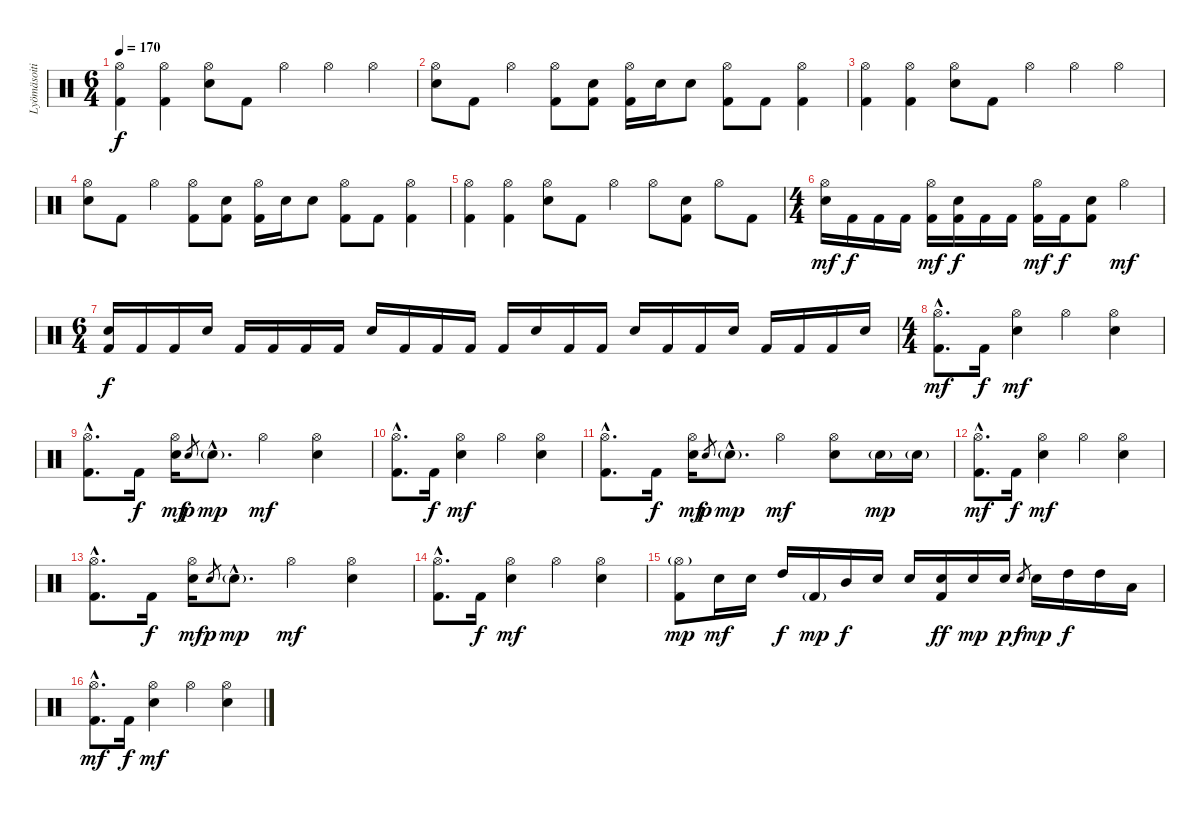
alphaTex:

\track ("Lyömäsoitin" "Lyömäsoiti") {instrument percussion}
\staff {score}
\articulation defaults
\ts (6 4)
\tempo 170
\clef neutral
\ks c
("Hi-Hat (open)" "Kick (hit) 2").4{dy f} ("Hi-Hat (open)" "Kick (hit) 2").4 ("Hi-Hat (open)" "Electric Snare (hit)").8 "Kick (hit) 2".8 "Hi-Hat (open)".4 "Hi-Hat (open)".4 "Hi-Hat (open)".4 |
("Hi-Hat (open)" "Electric Snare (hit)").8 "Kick (hit) 2".8 "Hi-Hat (open)".4 ("Kick (hit) 2" "Hi-Hat (open)").8 ("Electric Snare (hit)" "Kick (hit) 2").8 ("Kick (hit) 2" "Hi-Hat (open)").16 "Electric Snare (hit)".16 "Electric Snare (hit)".8 ("Hi-Hat (open)" "Kick (hit) 2").8 "Kick (hit) 2".8 ("Hi-Hat (open)" "Kick (hit) 2").4 |
("Hi-Hat (open)" "Kick (hit) 2").4 ("Hi-Hat (open)" "Kick (hit) 2").4 ("Hi-Hat (open)" "Electric Snare (hit)").8 "Kick (hit) 2".8 "Hi-Hat (open)".4 "Hi-Hat (open)".4 "Hi-Hat (open)".4 |
("Hi-Hat (open)" "Electric Snare (hit)").8 "Kick (hit) 2".8 "Hi-Hat (open)".4 ("Kick (hit) 2" "Hi-Hat (open)").8 ("Electric Snare (hit)" "Kick (hit) 2").8 ("Kick (hit) 2" "Hi-Hat (open)").16 "Electric Snare (hit)".16 "Electric Snare (hit)".8 ("Hi-Hat (open)" "Kick (hit) 2").8 "Kick (hit) 2".8 ("Hi-Hat (open)" "Kick (hit) 2").4 |
("Hi-Hat (open)" "Kick (hit) 2").4 ("Hi-Hat (open)" "Kick (hit) 2").4 ("Hi-Hat (open)" "Electric Snare (hit)").8 "Kick (hit) 2".8 "Hi-Hat (open)".4 "Hi-Hat (open)".8 ("Electric Snare (hit)" "Kick (hit) 2").8 "Hi-Hat (open)".8 "Kick (hit) 2".8 |
\ts (4 4)
("Hi-Hat (open)" "Electric Snare (hit)").16{dy mf} "Kick (hit) 2".16{dy f} "Kick (hit) 2".16 "Kick (hit) 2".16 ("Hi-Hat (open)" "Kick (hit) 2").16{dy mf} ("Electric Snare (hit)" "Kick (hit) 2").16{dy f} "Kick (hit) 2".16 "Kick (hit) 2".16 ("Hi-Hat (open)" "Kick (hit) 2").16{dy mf} "Kick (hit) 2".16{dy f} ("Electric Snare (hit)" "Kick (hit) 2").8 "Hi-Hat (open)".4{dy mf} |
\ts (6 4)
("Kick (hit) 2" "Electric Snare (hit)").16{dy f} "Kick (hit) 2".16 "Kick (hit) 2".16 "Electric Snare (hit)".16 "Kick (hit) 2".16 "Kick (hit) 2".16 "Kick (hit) 2".16 "Kick (hit) 2".16 "Electric Snare (hit)".16 "Kick (hit) 2".16 "Kick (hit) 2".16 "Kick (hit) 2".16 "Kick (hit) 2".16 "Electric Snare (hit)".16 "Kick (hit) 2".16 "Kick (hit) 2".16 "Electric Snare (hit)".16 "Kick (hit) 2".16 "Kick (hit) 2".16 "Electric Snare (hit)".16 "Kick (hit) 2".16 "Kick (hit) 2".16 "Kick (hit) 2".16 "Electric Snare (hit)".16 |
\ts (4 4)
("Hi-Hat (open)"{hac} "Kick (hit) 2"{hac}).8{d dy mf} "Kick (hit) 2".16{dy f} ("Hi-Hat (open)" "Electric Snare (hit)").4{dy mf} "Hi-Hat (open)".4 ("Hi-Hat (open)" "Electric Snare (hit)").4 |
("Hi-Hat (open)"{hac} "Kick (hit) 2"{hac}).8{d} "Kick (hit) 2".16{dy f} ("Hi-Hat (open)" "Electric Snare (hit)").16{dy mf} "Electric Snare (hit)".8{gr dy p} "Electric Snare (hit)"{g hac}.8{d dy mp} "Hi-Hat (open)".4{dy mf} ("Hi-Hat (open)" "Electric Snare (hit)").4 |
("Hi-Hat (open)"{hac} "Kick (hit) 2"{hac}).8{d} "Kick (hit) 2".16{dy f} ("Hi-Hat (open)" "Electric Snare (hit)").4{dy mf} "Hi-Hat (open)".4 ("Hi-Hat (open)" "Electric Snare (hit)").4 |
("Hi-Hat (open)"{hac} "Kick (hit) 2"{hac}).8{d} "Kick (hit) 2".16{dy f} ("Hi-Hat (open)" "Electric Snare (hit)").16{dy mf} "Electric Snare (hit)".8{gr dy p} "Electric Snare (hit)"{g hac}.8{d dy mp} "Hi-Hat (open)".4{dy mf} ("Hi-Hat (open)" "Electric Snare (hit)").8 "Electric Snare (hit)"{g}.16{dy mp} "Electric Snare (hit)"{g}.16 |
("Hi-Hat (open)"{hac} "Kick (hit) 2"{hac}).8{d dy mf} "Kick (hit) 2".16{dy f} ("Hi-Hat (open)" "Electric Snare (hit)").4{dy mf} "Hi-Hat (open)".4 ("Hi-Hat (open)" "Electric Snare (hit)").4 |
("Hi-Hat (open)"{hac} "Kick (hit) 2"{hac}).8{d} "Kick (hit) 2".16{dy f} ("Hi-Hat (open)" "Electric Snare (hit)").16{dy mf} "Electric Snare (hit)".8{gr dy p} "Electric Snare (hit)"{g hac}.8{d dy mp} "Hi-Hat (open)".4{dy mf} ("Hi-Hat (open)" "Electric Snare (hit)").4 |
("Hi-Hat (open)"{hac} "Kick (hit) 2"{hac}).8{d} "Kick (hit) 2".16{dy f} ("Hi-Hat (open)" "Electric Snare (hit)").4{dy mf} "Hi-Hat (open)".4 ("Hi-Hat (open)" "Electric Snare (hit)").4 |
("Kick (hit) 2" "Hi-Hat (open)"{g}).8{dy mp} "Electric Snare (hit)".16{dy mf} "Electric Snare (hit)".16 "High Tom (hit)".16{dy f} "Kick (hit) 2"{g}.16{dy mp} "Mid Tom (hit)".16{dy f} "Electric Snare (hit)".16 "Electric Snare (hit)".16 ("Kick (hit) 2" "Electric Snare (hit)").16{dy ff} "Electric Snare (hit)".16{dy mp} "Electric Snare (hit)".16{dy p} "Electric Snare (hit)".8{gr dy f} "Electric Snare (hit)".16{dy mp} "High Tom (hit)".16{dy f} "High Tom (hit)".16 "Low Floor Tom (hit)".16 |
("Hi-Hat (open)"{hac} "Kick (hit) 2"{hac}).8{d dy mf} "Kick (hit) 2".16{dy f} ("Hi-Hat (open)" "Electric Snare (hit)").4{dy mf} "Hi-Hat (open)".4 ("Hi-Hat (open)" "Electric Snare (hit)").4
